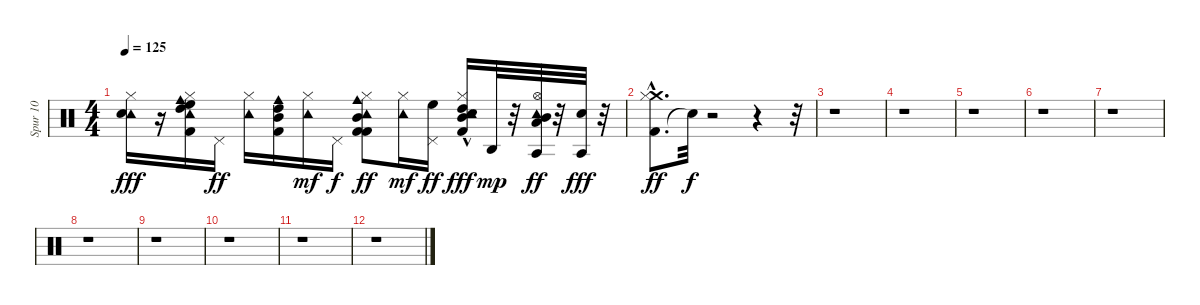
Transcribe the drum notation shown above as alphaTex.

\track ("Spur 10" "Spur 10") {instrument percussion}
\staff {score}
\articulation defaults
\ts (4 4)
\tempo 125
\clef neutral
\ks c
("Tambourine (hit)" "Electric Snare (hit)" "Hi-Hat (closed)").16{dy fff} r.16 ("Tambourine (hit)" "Cowbell medium (hit)" "Hi-Hat (closed)" "Kick (hit) 2" "High Floor Tom (hit)" "High Tom (hit)").16 "Pedal Hi-Hat (hit)".16{dy ff} ("Tambourine (hit)" "Hi-Hat (closed)").16 ("Cowbell medium (hit)" "Kick (hit) 2" "High Tom (hit)" "Mid Tom (hit)").16 ("Tambourine (hit)" "Hi-Hat (closed)").16{dy mf} "Pedal Hi-Hat (hit)".16{dy f} ("Tambourine (hit)" "Cowbell medium (hit)" "Kick (hit) 2" "Hi-Hat (closed)" "Kick (hit) 2" "Mid Tom (hit)").8{dy ff} ("Tambourine (hit)" "Hi-Hat (closed)").16{dy mf} ("Pedal Hi-Hat (hit)" "High Floor Tom (hit)").16{dy ff} ("Tambourine (hit)" "High Tom (hit)" "Hi-Hat (closed)" "Kick (hit) 2"{hac} "Electric Snare (hit)" "Mid Tom (hit)").16{dy fff} "Agogo high (hit)".32{dy mp} r.32 ("Agogo tow (hit)" "Tambourine (hit)" "Hi-Hat (open)" "Mid Tom (hit)" "Low Tom (hit)").32{dy ff} r.32 ("Agogo tow (hit)" "Electric Snare (hit)").32{dy fff} r.32 |
("Kick (hit) 2"{hac} "Crash medium (hit)" "Hi-Hat (closed)").8{d dy ff} "Snare (hit)"{t}.32{dy f} r.2 r.4 r.32 |
r.1 |
r.1 |
r.1 |
r.1 |
r.1 |
r.1 |
r.1 |
r.1 |
r.1 |
r.1
